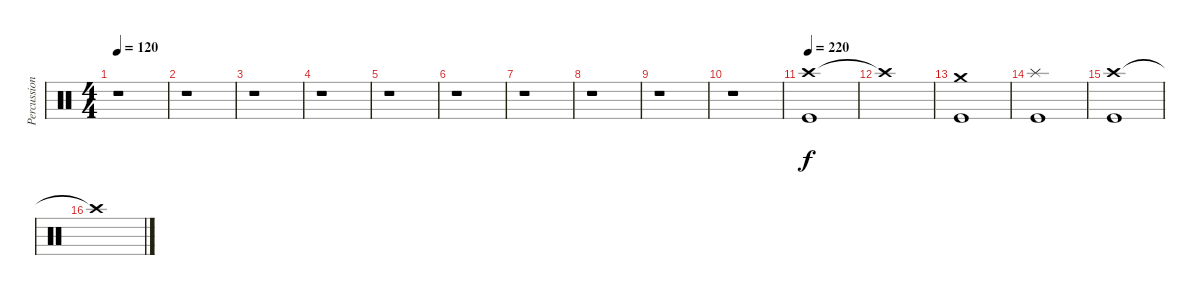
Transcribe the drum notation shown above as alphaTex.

\track ("Percussion" "Percussion") {instrument percussion}
\staff {score}
\articulation defaults
\ts (4 4)
\tempo 120
\clef neutral
\ks c
r.1{dy f} |
r.1 |
r.1 |
r.1 |
r.1 |
r.1 |
r.1 |
r.1 |
r.1 |
r.1 |
\tempo 220
("Crash high (hit)" "Kick (hit)").1 |
"Crash high (hit)"{t}.1 |
("Crash medium (hit)" "Kick (hit)").1 |
("Splash (hit)" "Kick (hit)").1 |
("Crash high (hit)" "Kick (hit)").1 |
"Crash high (hit)"{t}.1
